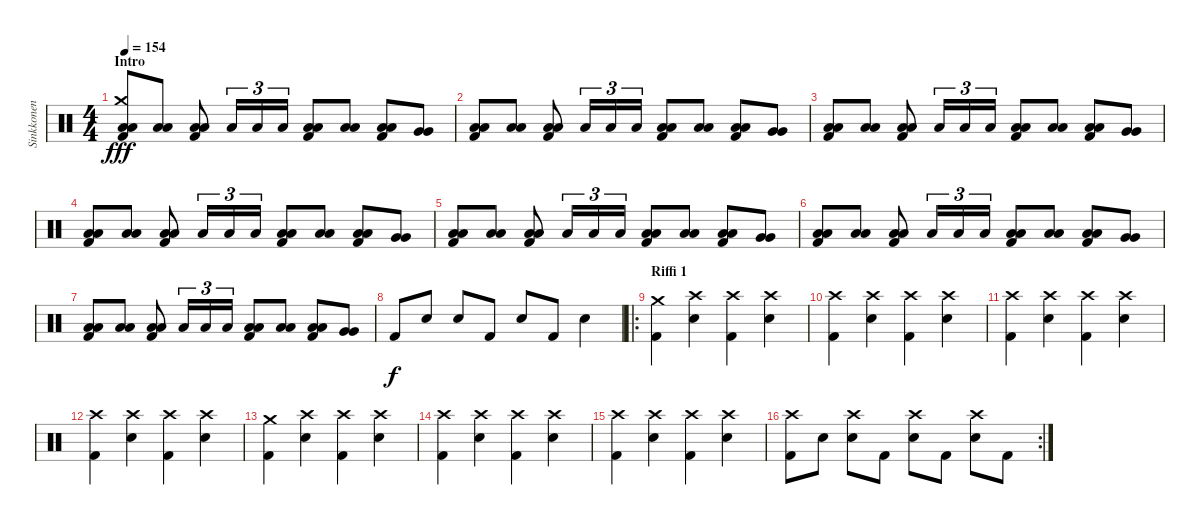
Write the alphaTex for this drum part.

\track ("Sinkkonen" "Sinkkonen") {instrument percussion}
\staff {score}
\articulation defaults
\ts (4 4)
\section ("" "Intro")
\tempo 154
\clef neutral
\ks c
("Kick (hit) 2" "Crash medium (hit)" "Low Floor Tom (hit)" "Low Floor Tom (hit)").8{dy fff} ("Low Floor Tom (hit)" "Low Floor Tom (hit)").8 ("Kick (hit) 2" "Low Floor Tom (hit)" "Low Floor Tom (hit)").8 "Low Floor Tom (hit)".16{tu (3 2)} "Low Floor Tom (hit)".16{tu (3 2)} "Low Floor Tom (hit)".16{tu (3 2)} ("Kick (hit) 2" "Low Floor Tom (hit)" "Low Floor Tom (hit)").8 ("Low Floor Tom (hit)" "Low Floor Tom (hit)").8 ("Kick (hit) 2" "Low Floor Tom (hit)" "Low Floor Tom (hit)").8 ("Very Low Tom (hit)" "Very Low Tom (hit)").8 |
("Kick (hit) 2" "Low Floor Tom (hit)" "Low Floor Tom (hit)").8 ("Low Floor Tom (hit)" "Low Floor Tom (hit)").8 ("Kick (hit) 2" "Low Floor Tom (hit)" "Low Floor Tom (hit)").8 "Low Floor Tom (hit)".16{tu (3 2)} "Low Floor Tom (hit)".16{tu (3 2)} "Low Floor Tom (hit)".16{tu (3 2)} ("Kick (hit) 2" "Low Floor Tom (hit)" "Low Floor Tom (hit)").8 ("Low Floor Tom (hit)" "Low Floor Tom (hit)").8 ("Kick (hit) 2" "Low Floor Tom (hit)" "Low Floor Tom (hit)").8 ("Very Low Tom (hit)" "Very Low Tom (hit)").8 |
("Kick (hit) 2" "Low Floor Tom (hit)" "Low Floor Tom (hit)").8 ("Low Floor Tom (hit)" "Low Floor Tom (hit)").8 ("Kick (hit) 2" "Low Floor Tom (hit)" "Low Floor Tom (hit)").8 "Low Floor Tom (hit)".16{tu (3 2)} "Low Floor Tom (hit)".16{tu (3 2)} "Low Floor Tom (hit)".16{tu (3 2)} ("Kick (hit) 2" "Low Floor Tom (hit)" "Low Floor Tom (hit)").8 ("Low Floor Tom (hit)" "Low Floor Tom (hit)").8 ("Kick (hit) 2" "Low Floor Tom (hit)" "Low Floor Tom (hit)").8 ("Very Low Tom (hit)" "Very Low Tom (hit)").8 |
("Kick (hit) 2" "Low Floor Tom (hit)" "Low Floor Tom (hit)").8 ("Low Floor Tom (hit)" "Low Floor Tom (hit)").8 ("Kick (hit) 2" "Low Floor Tom (hit)" "Low Floor Tom (hit)").8 "Low Floor Tom (hit)".16{tu (3 2)} "Low Floor Tom (hit)".16{tu (3 2)} "Low Floor Tom (hit)".16{tu (3 2)} ("Kick (hit) 2" "Low Floor Tom (hit)" "Low Floor Tom (hit)").8 ("Low Floor Tom (hit)" "Low Floor Tom (hit)").8 ("Kick (hit) 2" "Low Floor Tom (hit)" "Low Floor Tom (hit)").8 ("Very Low Tom (hit)" "Very Low Tom (hit)").8 |
("Kick (hit) 2" "Low Floor Tom (hit)" "Low Floor Tom (hit)").8 ("Low Floor Tom (hit)" "Low Floor Tom (hit)").8 ("Kick (hit) 2" "Low Floor Tom (hit)" "Low Floor Tom (hit)").8 "Low Floor Tom (hit)".16{tu (3 2)} "Low Floor Tom (hit)".16{tu (3 2)} "Low Floor Tom (hit)".16{tu (3 2)} ("Kick (hit) 2" "Low Floor Tom (hit)" "Low Floor Tom (hit)").8 ("Low Floor Tom (hit)" "Low Floor Tom (hit)").8 ("Kick (hit) 2" "Low Floor Tom (hit)" "Low Floor Tom (hit)").8 ("Very Low Tom (hit)" "Very Low Tom (hit)").8 |
("Kick (hit) 2" "Low Floor Tom (hit)" "Low Floor Tom (hit)").8 ("Low Floor Tom (hit)" "Low Floor Tom (hit)").8 ("Kick (hit) 2" "Low Floor Tom (hit)" "Low Floor Tom (hit)").8 "Low Floor Tom (hit)".16{tu (3 2)} "Low Floor Tom (hit)".16{tu (3 2)} "Low Floor Tom (hit)".16{tu (3 2)} ("Kick (hit) 2" "Low Floor Tom (hit)" "Low Floor Tom (hit)").8 ("Low Floor Tom (hit)" "Low Floor Tom (hit)").8 ("Kick (hit) 2" "Low Floor Tom (hit)" "Low Floor Tom (hit)").8 ("Very Low Tom (hit)" "Very Low Tom (hit)").8 |
("Kick (hit) 2" "Low Floor Tom (hit)" "Low Floor Tom (hit)").8 ("Low Floor Tom (hit)" "Low Floor Tom (hit)").8 ("Kick (hit) 2" "Low Floor Tom (hit)" "Low Floor Tom (hit)").8 "Low Floor Tom (hit)".16{tu (3 2)} "Low Floor Tom (hit)".16{tu (3 2)} "Low Floor Tom (hit)".16{tu (3 2)} ("Kick (hit) 2" "Low Floor Tom (hit)" "Low Floor Tom (hit)").8 ("Low Floor Tom (hit)" "Low Floor Tom (hit)").8 ("Kick (hit) 2" "Low Floor Tom (hit)" "Low Floor Tom (hit)").8 ("Very Low Tom (hit)" "Very Low Tom (hit)").8 |
"Kick (hit) 2".8{dy f} "Snare (hit) 2".8 "Snare (hit) 2".8 "Kick (hit) 2".8 "Snare (hit) 2".8 "Kick (hit) 2".8 "Snare (hit) 2".4 |
\ro
\section ("" "Riffi 1")
("Kick (hit) 2" "Crash medium (hit)").4 ("Crash high (hit)" "Snare (hit) 2").4 ("Kick (hit) 2" "Crash high (hit)").4 ("Crash high (hit)" "Snare (hit) 2").4 |
("Kick (hit) 2" "Crash high (hit)").4 ("Crash high (hit)" "Snare (hit) 2").4 ("Kick (hit) 2" "Crash high (hit)").4 ("Crash high (hit)" "Snare (hit) 2").4 |
("Kick (hit) 2" "Crash high (hit)").4 ("Crash high (hit)" "Snare (hit) 2").4 ("Kick (hit) 2" "Crash high (hit)").4 ("Crash high (hit)" "Snare (hit) 2").4 |
("Kick (hit) 2" "Crash high (hit)").4 ("Crash high (hit)" "Snare (hit) 2").4 ("Kick (hit) 2" "Crash high (hit)").4 ("Crash high (hit)" "Snare (hit) 2").4 |
("Kick (hit) 2" "Crash medium (hit)").4 ("Crash high (hit)" "Snare (hit) 2").4 ("Kick (hit) 2" "Crash high (hit)").4 ("Crash high (hit)" "Snare (hit) 2").4 |
("Kick (hit) 2" "Crash high (hit)").4 ("Crash high (hit)" "Snare (hit) 2").4 ("Kick (hit) 2" "Crash high (hit)").4 ("Crash high (hit)" "Snare (hit) 2").4 |
("Kick (hit) 2" "Crash high (hit)").4 ("Crash high (hit)" "Snare (hit) 2").4 ("Kick (hit) 2" "Crash high (hit)").4 ("Crash high (hit)" "Snare (hit) 2").4 |
\rc 2
("Kick (hit) 2" "Crash high (hit)").8 "Snare (hit) 2".8 ("Crash high (hit)" "Snare (hit) 2").8 "Kick (hit) 2".8 ("Crash high (hit)" "Snare (hit) 2").8 "Kick (hit) 2".8 ("Crash high (hit)" "Snare (hit) 2").8 "Kick (hit) 2".8
